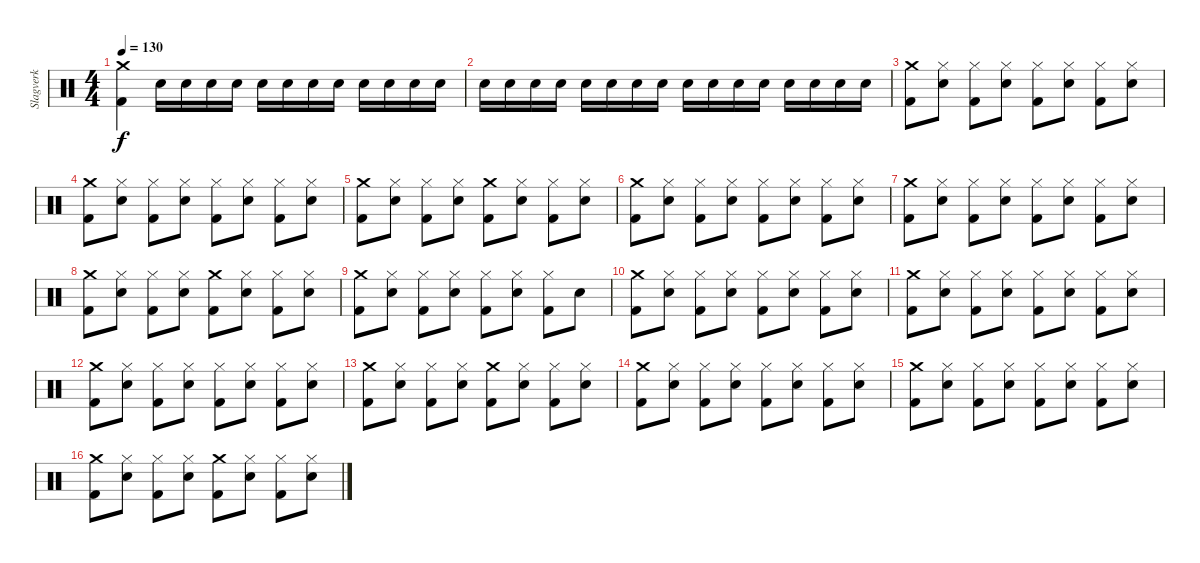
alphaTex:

\track ("Slagverk" "Slagverk") {instrument percussion}
\staff {score}
\articulation defaults
\ts (4 4)
\tempo 130
\clef neutral
\ks c
("Crash medium (hit)" "Kick (hit) 2").4{dy f} "Snare (hit) 2".16 "Snare (hit) 2".16 "Snare (hit) 2".16 "Snare (hit) 2".16 "Snare (hit) 2".16 "Snare (hit) 2".16 "Snare (hit) 2".16 "Snare (hit) 2".16 "Snare (hit) 2".16 "Snare (hit) 2".16 "Snare (hit) 2".16 "Snare (hit) 2".16 |
"Snare (hit) 2".16 "Snare (hit) 2".16 "Snare (hit) 2".16 "Snare (hit) 2".16 "Snare (hit) 2".16 "Snare (hit) 2".16 "Snare (hit) 2".16 "Snare (hit) 2".16 "Snare (hit) 2".16 "Snare (hit) 2".16 "Snare (hit) 2".16 "Snare (hit) 2".16 "Snare (hit) 2".16 "Snare (hit) 2".16 "Snare (hit) 2".16 "Snare (hit) 2".16 |
("Crash medium (hit)" "Kick (hit) 2").8 ("Snare (hit) 2" "Hi-Hat (closed)").8 ("Hi-Hat (closed)" "Kick (hit) 2").8 ("Snare (hit) 2" "Hi-Hat (closed)").8 ("Hi-Hat (closed)" "Kick (hit) 2").8 ("Snare (hit) 2" "Hi-Hat (closed)").8 ("Hi-Hat (closed)" "Kick (hit) 2").8 ("Snare (hit) 2" "Hi-Hat (closed)").8 |
("Crash medium (hit)" "Kick (hit) 2").8 ("Snare (hit) 2" "Hi-Hat (closed)").8 ("Hi-Hat (closed)" "Kick (hit) 2").8 ("Snare (hit) 2" "Hi-Hat (closed)").8 ("Hi-Hat (closed)" "Kick (hit) 2").8 ("Snare (hit) 2" "Hi-Hat (closed)").8 ("Hi-Hat (closed)" "Kick (hit) 2").8 ("Snare (hit) 2" "Hi-Hat (closed)").8 |
("Crash medium (hit)" "Kick (hit) 2").8 ("Snare (hit) 2" "Hi-Hat (closed)").8 ("Hi-Hat (closed)" "Kick (hit) 2").8 ("Snare (hit) 2" "Hi-Hat (closed)").8 ("Crash medium (hit)" "Kick (hit) 2").8 ("Snare (hit) 2" "Hi-Hat (closed)").8 ("Hi-Hat (closed)" "Kick (hit) 2").8 ("Snare (hit) 2" "Hi-Hat (closed)").8 |
("Crash medium (hit)" "Kick (hit) 2").8 ("Snare (hit) 2" "Hi-Hat (closed)").8 ("Hi-Hat (closed)" "Kick (hit) 2").8 ("Snare (hit) 2" "Hi-Hat (closed)").8 ("Hi-Hat (closed)" "Kick (hit) 2").8 ("Snare (hit) 2" "Hi-Hat (closed)").8 ("Hi-Hat (closed)" "Kick (hit) 2").8 ("Snare (hit) 2" "Hi-Hat (closed)").8 |
("Crash medium (hit)" "Kick (hit) 2").8 ("Snare (hit) 2" "Hi-Hat (closed)").8 ("Hi-Hat (closed)" "Kick (hit) 2").8 ("Snare (hit) 2" "Hi-Hat (closed)").8 ("Hi-Hat (closed)" "Kick (hit) 2").8 ("Snare (hit) 2" "Hi-Hat (closed)").8 ("Hi-Hat (closed)" "Kick (hit) 2").8 ("Snare (hit) 2" "Hi-Hat (closed)").8 |
("Crash medium (hit)" "Kick (hit) 2").8 ("Snare (hit) 2" "Hi-Hat (closed)").8 ("Hi-Hat (closed)" "Kick (hit) 2").8 ("Snare (hit) 2" "Hi-Hat (closed)").8 ("Crash medium (hit)" "Kick (hit) 2").8 ("Snare (hit) 2" "Hi-Hat (closed)").8 ("Hi-Hat (closed)" "Kick (hit) 2").8 ("Snare (hit) 2" "Hi-Hat (closed)").8 |
("Crash medium (hit)" "Kick (hit) 2").8 ("Snare (hit) 2" "Hi-Hat (closed)").8 ("Hi-Hat (closed)" "Kick (hit) 2").8 ("Snare (hit) 2" "Hi-Hat (closed)").8 ("Hi-Hat (closed)" "Kick (hit) 2").8 ("Snare (hit) 2" "Hi-Hat (closed)").8 ("Hi-Hat (closed)" "Kick (hit) 2").8 "Snare (hit) 2".8 |
("Crash medium (hit)" "Kick (hit) 2").8 ("Snare (hit) 2" "Hi-Hat (closed)").8 ("Hi-Hat (closed)" "Kick (hit) 2").8 ("Snare (hit) 2" "Hi-Hat (closed)").8 ("Hi-Hat (closed)" "Kick (hit) 2").8 ("Snare (hit) 2" "Hi-Hat (closed)").8 ("Hi-Hat (closed)" "Kick (hit) 2").8 ("Snare (hit) 2" "Hi-Hat (closed)").8 |
("Crash medium (hit)" "Kick (hit) 2").8 ("Snare (hit) 2" "Hi-Hat (closed)").8 ("Hi-Hat (closed)" "Kick (hit) 2").8 ("Snare (hit) 2" "Hi-Hat (closed)").8 ("Hi-Hat (closed)" "Kick (hit) 2").8 ("Snare (hit) 2" "Hi-Hat (closed)").8 ("Hi-Hat (closed)" "Kick (hit) 2").8 ("Snare (hit) 2" "Hi-Hat (closed)").8 |
("Crash medium (hit)" "Kick (hit) 2").8 ("Snare (hit) 2" "Hi-Hat (closed)").8 ("Hi-Hat (closed)" "Kick (hit) 2").8 ("Snare (hit) 2" "Hi-Hat (closed)").8 ("Hi-Hat (closed)" "Kick (hit) 2").8 ("Snare (hit) 2" "Hi-Hat (closed)").8 ("Hi-Hat (closed)" "Kick (hit) 2").8 ("Snare (hit) 2" "Hi-Hat (closed)").8 |
("Crash medium (hit)" "Kick (hit) 2").8 ("Snare (hit) 2" "Hi-Hat (closed)").8 ("Hi-Hat (closed)" "Kick (hit) 2").8 ("Snare (hit) 2" "Hi-Hat (closed)").8 ("Crash medium (hit)" "Kick (hit) 2").8 ("Snare (hit) 2" "Hi-Hat (closed)").8 ("Hi-Hat (closed)" "Kick (hit) 2").8 ("Snare (hit) 2" "Hi-Hat (closed)").8 |
("Crash medium (hit)" "Kick (hit) 2").8 ("Snare (hit) 2" "Hi-Hat (closed)").8 ("Hi-Hat (closed)" "Kick (hit) 2").8 ("Snare (hit) 2" "Hi-Hat (closed)").8 ("Hi-Hat (closed)" "Kick (hit) 2").8 ("Snare (hit) 2" "Hi-Hat (closed)").8 ("Hi-Hat (closed)" "Kick (hit) 2").8 ("Snare (hit) 2" "Hi-Hat (closed)").8 |
("Crash medium (hit)" "Kick (hit) 2").8 ("Snare (hit) 2" "Hi-Hat (closed)").8 ("Hi-Hat (closed)" "Kick (hit) 2").8 ("Snare (hit) 2" "Hi-Hat (closed)").8 ("Hi-Hat (closed)" "Kick (hit) 2").8 ("Snare (hit) 2" "Hi-Hat (closed)").8 ("Hi-Hat (closed)" "Kick (hit) 2").8 ("Snare (hit) 2" "Hi-Hat (closed)").8 |
("Crash medium (hit)" "Kick (hit) 2").8 ("Snare (hit) 2" "Hi-Hat (closed)").8 ("Hi-Hat (closed)" "Kick (hit) 2").8 ("Snare (hit) 2" "Hi-Hat (closed)").8 ("Crash medium (hit)" "Kick (hit) 2").8 ("Snare (hit) 2" "Hi-Hat (closed)").8 ("Hi-Hat (closed)" "Kick (hit) 2").8 ("Snare (hit) 2" "Hi-Hat (closed)").8
